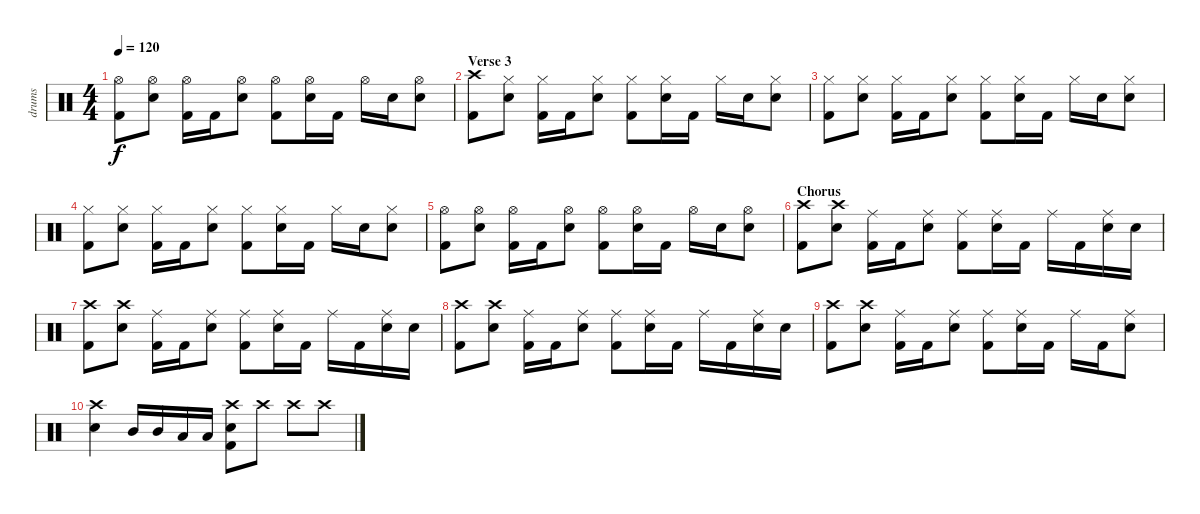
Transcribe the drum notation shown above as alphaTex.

\track ("drums" "drums") {instrument percussion}
\staff {score}
\articulation defaults
\ts (4 4)
\tempo 120
\clef neutral
\ks c
("Hi-Hat (open)" "Kick (hit) 2").8{dy f} ("Hi-Hat (open)" "Snare (hit) 2").8 ("Hi-Hat (open)" "Kick (hit) 2").16 "Kick (hit) 2".16 ("Hi-Hat (open)" "Snare (hit) 2").8 ("Hi-Hat (open)" "Kick (hit) 2").8 ("Hi-Hat (open)" "Snare (hit) 2").16 "Kick (hit) 2".16 "Hi-Hat (open)".16 "Snare (hit) 2".16 ("Hi-Hat (open)" "Snare (hit) 2").8 |
\section ("" "Verse 3")
("Crash high (hit)" "Kick (hit) 2").8 ("Hi-Hat (closed)" "Snare (hit) 2").8 ("Hi-Hat (closed)" "Kick (hit) 2").16 "Kick (hit) 2".16 ("Hi-Hat (closed)" "Snare (hit) 2").8 ("Hi-Hat (closed)" "Kick (hit) 2").8 ("Hi-Hat (closed)" "Snare (hit) 2").16 "Kick (hit) 2".16 "Hi-Hat (closed)".16 "Snare (hit) 2".16 ("Hi-Hat (closed)" "Snare (hit) 2").8 |
("Hi-Hat (closed)" "Kick (hit) 2").8 ("Hi-Hat (closed)" "Snare (hit) 2").8 ("Hi-Hat (closed)" "Kick (hit) 2").16 "Kick (hit) 2".16 ("Hi-Hat (closed)" "Snare (hit) 2").8 ("Hi-Hat (closed)" "Kick (hit) 2").8 ("Hi-Hat (closed)" "Snare (hit) 2").16 "Kick (hit) 2".16 "Hi-Hat (closed)".16 "Snare (hit) 2".16 ("Hi-Hat (closed)" "Snare (hit) 2").8 |
("Hi-Hat (closed)" "Kick (hit) 2").8 ("Hi-Hat (closed)" "Snare (hit) 2").8 ("Hi-Hat (closed)" "Kick (hit) 2").16 "Kick (hit) 2".16 ("Hi-Hat (closed)" "Snare (hit) 2").8 ("Hi-Hat (closed)" "Kick (hit) 2").8 ("Hi-Hat (closed)" "Snare (hit) 2").16 "Kick (hit) 2".16 "Hi-Hat (closed)".16 "Snare (hit) 2".16 ("Hi-Hat (closed)" "Snare (hit) 2").8 |
("Hi-Hat (open)" "Kick (hit) 2").8 ("Hi-Hat (open)" "Snare (hit) 2").8 ("Hi-Hat (open)" "Kick (hit) 2").16 "Kick (hit) 2".16 ("Hi-Hat (open)" "Snare (hit) 2").8 ("Hi-Hat (open)" "Kick (hit) 2").8 ("Hi-Hat (open)" "Snare (hit) 2").16 "Kick (hit) 2".16 "Hi-Hat (open)".16 "Snare (hit) 2".16 ("Hi-Hat (open)" "Snare (hit) 2").8 |
\section ("" "Chorus")
("Crash high (hit)" "Kick (hit) 2").8 ("Crash high (hit)" "Snare (hit) 2").8 ("Ride (middle)" "Kick (hit) 2").16 "Kick (hit) 2".16 ("Ride (middle)" "Snare (hit) 2").8 ("Ride (middle)" "Kick (hit) 2").8 ("Ride (middle)" "Snare (hit) 2").16 "Kick (hit) 2".16 "Ride (middle)".16 "Kick (hit) 2".16 ("Ride (middle)" "Snare (hit) 2").16 "Snare (hit) 2".16 |
("Crash high (hit)" "Kick (hit) 2").8 ("Crash high (hit)" "Snare (hit) 2").8 ("Ride (middle)" "Kick (hit) 2").16 "Kick (hit) 2".16 ("Ride (middle)" "Snare (hit) 2").8 ("Ride (middle)" "Kick (hit) 2").8 ("Ride (middle)" "Snare (hit) 2").16 "Kick (hit) 2".16 "Ride (middle)".16 "Kick (hit) 2".16 ("Ride (middle)" "Snare (hit) 2").16 "Snare (hit) 2".16 |
("Crash high (hit)" "Kick (hit) 2").8 ("Crash high (hit)" "Snare (hit) 2").8 ("Ride (middle)" "Kick (hit) 2").16 "Kick (hit) 2".16 ("Ride (middle)" "Snare (hit) 2").8 ("Ride (middle)" "Kick (hit) 2").8 ("Ride (middle)" "Snare (hit) 2").16 "Kick (hit) 2".16 "Ride (middle)".16 "Kick (hit) 2".16 ("Ride (middle)" "Snare (hit) 2").16 "Snare (hit) 2".16 |
("Crash high (hit)" "Kick (hit) 2").8 ("Crash high (hit)" "Snare (hit) 2").8 ("Ride (middle)" "Kick (hit) 2").16 "Kick (hit) 2".16 ("Ride (middle)" "Snare (hit) 2").8 ("Ride (middle)" "Kick (hit) 2").8 ("Ride (middle)" "Snare (hit) 2").16 "Kick (hit) 2".16 "Ride (middle)".16 "Kick (hit) 2".16 ("Ride (middle)" "Snare (hit) 2").8 |
("Crash high (hit)" "Electric Snare (hit)").4 "Mid Tom (hit)".16 "Mid Tom (hit)".16 "Low Tom (hit)".16 "Low Tom (hit)".16 ("Crash high (hit)" "Electric Snare (hit)" "Kick (hit) 2").8 "Crash high (hit)".8{volume 10} "Crash high (hit)".8{volume 7} "Crash high (hit)".8{volume 5}
